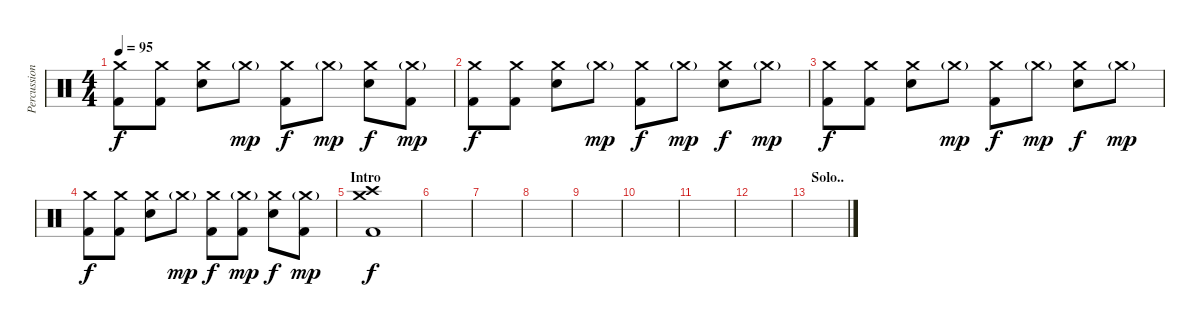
\track ("Percussions" "Percussion") {instrument percussion}
\staff {score}
\articulation defaults
\ts (4 4)
\tempo 95
\clef neutral
\ks c
("Crash medium (hit)" "Kick (hit) 2").8{dy f} ("Crash medium (hit)" "Kick (hit) 2").8 ("Crash medium (hit)" "Electric Snare (hit)").8 "Crash medium (hit)"{g}.8{dy mp} ("Crash medium (hit)" "Kick (hit) 2").8{dy f} "Crash medium (hit)"{g}.8{dy mp} ("Crash medium (hit)" "Electric Snare (hit)").8{dy f} ("Crash medium (hit)"{g} "Kick (hit) 2").8{dy mp} |
("Crash medium (hit)" "Kick (hit) 2").8{dy f} ("Crash medium (hit)" "Kick (hit) 2").8 ("Crash medium (hit)" "Electric Snare (hit)").8 "Crash medium (hit)"{g}.8{dy mp} ("Crash medium (hit)" "Kick (hit) 2").8{dy f} "Crash medium (hit)"{g}.8{dy mp} ("Crash medium (hit)" "Electric Snare (hit)").8{dy f} "Crash medium (hit)"{g}.8{dy mp} |
("Crash medium (hit)" "Kick (hit) 2").8{dy f} ("Crash medium (hit)" "Kick (hit) 2").8 ("Crash medium (hit)" "Electric Snare (hit)").8 "Crash medium (hit)"{g}.8{dy mp} ("Crash medium (hit)" "Kick (hit) 2").8{dy f} "Crash medium (hit)"{g}.8{dy mp} ("Crash medium (hit)" "Electric Snare (hit)").8{dy f} "Crash medium (hit)"{g}.8{dy mp} |
("Crash medium (hit)" "Kick (hit) 2").8{dy f} ("Crash medium (hit)" "Kick (hit) 2").8 ("Crash medium (hit)" "Electric Snare (hit)").8 "Crash medium (hit)"{g}.8{dy mp} ("Crash medium (hit)" "Kick (hit) 2").8{dy f} ("Crash medium (hit)"{g} "Kick (hit) 2").8{dy mp} ("Crash medium (hit)" "Electric Snare (hit)").8{dy f} ("Crash medium (hit)"{g} "Kick (hit) 2").8{dy mp} |
\section ("" "Intro")
("Crash medium (hit)" "Crash high (hit)" "Kick (hit) 2").1{dy f} |
|
|
|
|
|
|
|
\section ("" "Solo..")
